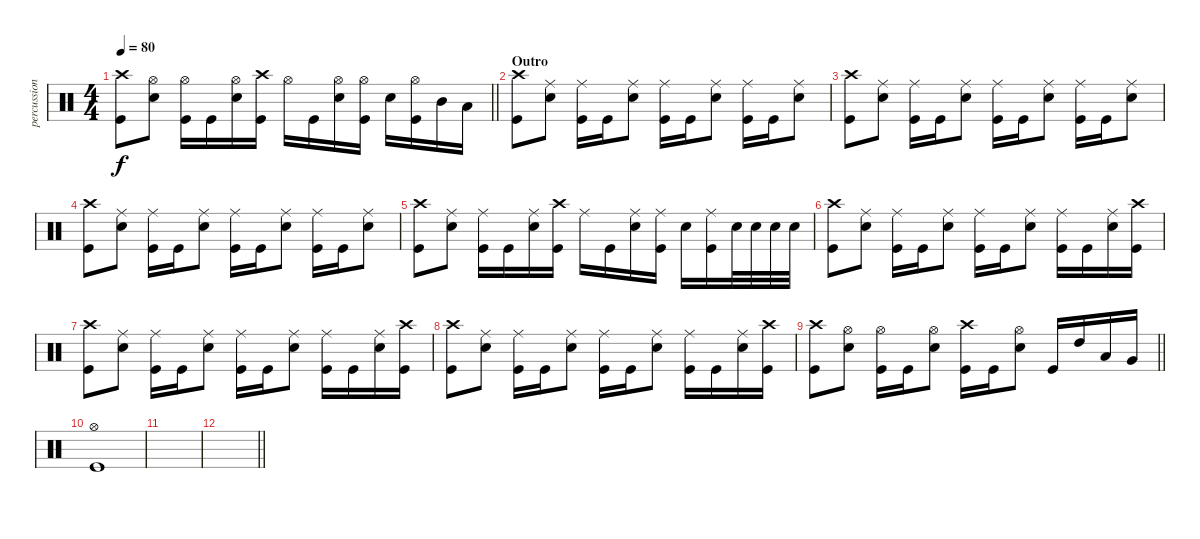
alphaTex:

\track ("percussion" "percussion") {instrument percussion}
\staff {score}
\articulation defaults
\ts (4 4)
\tempo 80
\clef neutral
\barLineRight lightlight
\ks c
("Crash high (hit)" "Kick (hit)").8{dy f} ("Hi-Hat (open)" "Snare (hit) 2").8 ("Hi-Hat (open)" "Kick (hit)").16 "Kick (hit)".16 ("Hi-Hat (open)" "Snare (hit) 2").16 ("Crash high (hit)" "Kick (hit)").16 "Hi-Hat (open)".16 "Kick (hit)".16 ("Hi-Hat (open)" "Snare (hit) 2").16 ("Hi-Hat (open)" "Kick (hit)").16 "Snare (hit) 2".16 ("Hi-Hat (open)" "Kick (hit)").16 "Mid Tom (hit)".16 "Low Tom (hit)".16 |
\section ("" "Outro")
("Crash high (hit)" "Kick (hit)").8 ("Ride (middle)" "Snare (hit) 2").8 ("Ride (middle)" "Kick (hit)").16 "Kick (hit)".16 ("Ride (middle)" "Snare (hit) 2").8 ("Ride (middle)" "Kick (hit)").16 "Kick (hit)".16 ("Ride (middle)" "Snare (hit) 2").8 ("Ride (middle)" "Kick (hit)").16 "Kick (hit)".16 ("Ride (middle)" "Snare (hit) 2").8 |
("Crash high (hit)" "Kick (hit)").8 ("Ride (middle)" "Snare (hit) 2").8 ("Ride (middle)" "Kick (hit)").16 "Kick (hit)".16 ("Ride (middle)" "Snare (hit) 2").8 ("Ride (middle)" "Kick (hit)").16 "Kick (hit)".16 ("Ride (middle)" "Snare (hit) 2").8 ("Ride (middle)" "Kick (hit)").16 "Kick (hit)".16 ("Ride (middle)" "Snare (hit) 2").8 |
("Crash high (hit)" "Kick (hit)").8 ("Ride (middle)" "Snare (hit) 2").8 ("Ride (middle)" "Kick (hit)").16 "Kick (hit)".16 ("Ride (middle)" "Snare (hit) 2").8 ("Ride (middle)" "Kick (hit)").16 "Kick (hit)".16 ("Ride (middle)" "Snare (hit) 2").8 ("Ride (middle)" "Kick (hit)").16 "Kick (hit)".16 ("Ride (middle)" "Snare (hit) 2").8 |
("Crash high (hit)" "Kick (hit)").8 ("Ride (middle)" "Snare (hit) 2").8 ("Ride (middle)" "Kick (hit)").16 "Kick (hit)".16 ("Ride (middle)" "Snare (hit) 2").16 ("Crash high (hit)" "Kick (hit)").16 "Ride (middle)".16 "Kick (hit)".16 ("Ride (middle)" "Snare (hit) 2").16 ("Ride (middle)" "Kick (hit)").16 "Snare (hit) 2".16 ("Ride (middle)" "Kick (hit)").16 "Snare (hit) 2".32 "Snare (hit) 2".32 "Snare (hit) 2".32 "Snare (hit) 2".32 |
("Crash high (hit)" "Kick (hit)").8 ("Ride (middle)" "Snare (hit) 2").8 ("Ride (middle)" "Kick (hit)").16 "Kick (hit)".16 ("Ride (middle)" "Snare (hit) 2").8 ("Ride (middle)" "Kick (hit)").16 "Kick (hit)".16 ("Ride (middle)" "Snare (hit) 2").8 ("Ride (middle)" "Kick (hit)").16 "Kick (hit)".16 ("Ride (middle)" "Snare (hit) 2").16 ("Crash high (hit)" "Kick (hit)").16 |
("Crash high (hit)" "Kick (hit)").8 ("Ride (middle)" "Snare (hit) 2").8 ("Ride (middle)" "Kick (hit)").16 "Kick (hit)".16 ("Ride (middle)" "Snare (hit) 2").8 ("Ride (middle)" "Kick (hit)").16 "Kick (hit)".16 ("Ride (middle)" "Snare (hit) 2").8 ("Ride (middle)" "Kick (hit)").16 "Kick (hit)".16 ("Ride (middle)" "Snare (hit) 2").16 ("Crash high (hit)" "Kick (hit)").16 |
("Crash high (hit)" "Kick (hit)").8 ("Ride (middle)" "Snare (hit) 2").8 ("Ride (middle)" "Kick (hit)").16 "Kick (hit)".16 ("Ride (middle)" "Snare (hit) 2").8 ("Ride (middle)" "Kick (hit)").16 "Kick (hit)".16 ("Ride (middle)" "Snare (hit) 2").8 ("Ride (middle)" "Kick (hit)").16 "Kick (hit)".16 ("Ride (middle)" "Snare (hit) 2").16 ("Crash high (hit)" "Kick (hit)").16 |
\barLineRight lightlight
("Crash high (hit)" "Kick (hit)").8 ("Hi-Hat (open)" "Snare (hit) 2").8 ("Hi-Hat (open)" "Kick (hit)").16 "Kick (hit)".16 ("Hi-Hat (open)" "Snare (hit) 2").8 ("Crash high (hit)" "Kick (hit)").16 "Kick (hit)".16 ("Hi-Hat (open)" "Snare (hit) 2").8 "Kick (hit)".16 "High Tom (hit)".16 "Low Tom (hit)".16 "Very Low Tom (hit)".16 |
("Hi-Hat (open)" "Kick (hit)").1 |
|
\barLineRight lightlight
